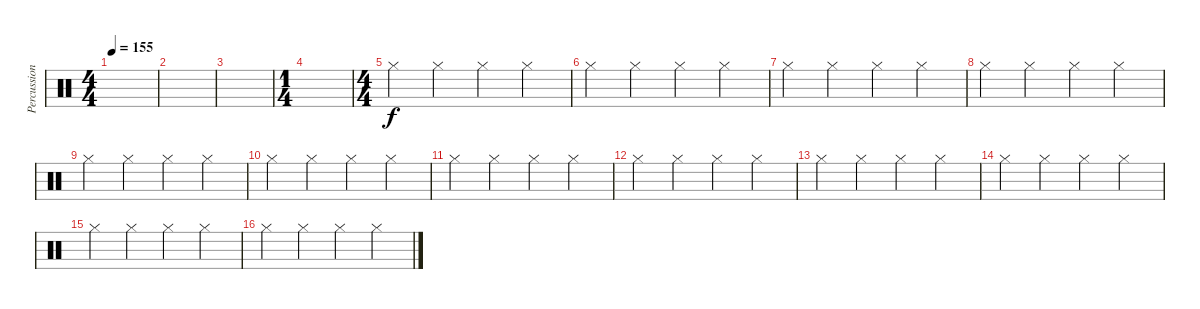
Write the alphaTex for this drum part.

\track ("Percussion" "Percussion") {instrument percussion}
\staff {score}
\articulation defaults
\ts (4 4)
\tempo 155
\clef neutral
\ks c
|
|
|
\ts (1 4)
|
\ts (4 4)
"Hi-Hat (closed)".4 "Hi-Hat (closed)".4 "Hi-Hat (closed)".4 "Hi-Hat (closed)".4 |
"Hi-Hat (closed)".4 "Hi-Hat (closed)".4 "Hi-Hat (closed)".4 "Hi-Hat (closed)".4 |
"Hi-Hat (closed)".4 "Hi-Hat (closed)".4 "Hi-Hat (closed)".4 "Hi-Hat (closed)".4 |
"Hi-Hat (closed)".4 "Hi-Hat (closed)".4 "Hi-Hat (closed)".4 "Hi-Hat (closed)".4 |
"Hi-Hat (closed)".4 "Hi-Hat (closed)".4 "Hi-Hat (closed)".4 "Hi-Hat (closed)".4 |
"Hi-Hat (closed)".4 "Hi-Hat (closed)".4 "Hi-Hat (closed)".4 "Hi-Hat (closed)".4 |
"Hi-Hat (closed)".4 "Hi-Hat (closed)".4 "Hi-Hat (closed)".4 "Hi-Hat (closed)".4 |
"Hi-Hat (closed)".4 "Hi-Hat (closed)".4 "Hi-Hat (closed)".4 "Hi-Hat (closed)".4 |
"Hi-Hat (closed)".4 "Hi-Hat (closed)".4 "Hi-Hat (closed)".4 "Hi-Hat (closed)".4 |
"Hi-Hat (closed)".4 "Hi-Hat (closed)".4 "Hi-Hat (closed)".4 "Hi-Hat (closed)".4 |
"Hi-Hat (closed)".4 "Hi-Hat (closed)".4 "Hi-Hat (closed)".4 "Hi-Hat (closed)".4 |
"Hi-Hat (closed)".4 "Hi-Hat (closed)".4 "Hi-Hat (closed)".4 "Hi-Hat (closed)".4
